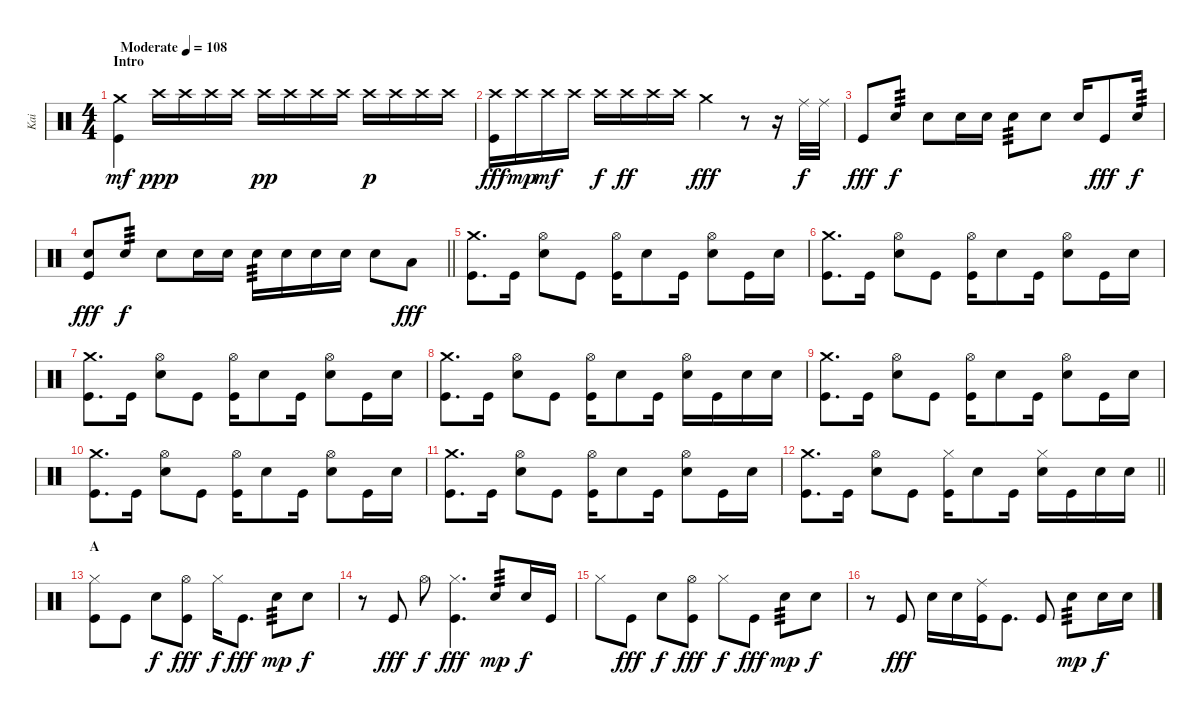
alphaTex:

\track ("Kai" "Kai") {instrument percussion}
\staff {score}
\articulation defaults
\ts (4 4)
\section ("" "Intro")
\tempo (108 "Moderate")
\clef neutral
\ks c
("Kick (hit)" "Crash medium (hit)").4{dy mf} "Crash high (hit)".16{dy ppp} "Crash high (hit)".16 "Crash high (hit)".16 "Crash high (hit)".16 "Crash high (hit)".16{dy pp} "Crash high (hit)".16 "Crash high (hit)".16 "Crash high (hit)".16 "Crash high (hit)".16{dy p} "Crash high (hit)".16 "Crash high (hit)".16 "Crash high (hit)".16 |
("Crash high (hit)" "Kick (hit)").16{dy fff} "Crash high (hit)".16{dy mp} "Crash high (hit)".16{dy mf} "Crash high (hit)".16 "Crash high (hit)".16{dy f} "Crash high (hit)".16{dy ff} "Crash high (hit)".16 "Crash high (hit)".16 "Crash medium (hit)".4{dy fff} r.8 r.16 "Ride (middle)".32{dy f} "Ride (middle)".32 |
"Kick (hit)".8{dy fff} "Snare (hit) 2".8{tp 3 dy f} "Snare (hit) 2".8 "Snare (hit) 2".16 "Snare (hit) 2".16 "Snare (hit) 2".8{tp 3} "Snare (hit) 2".8 "Snare (hit) 2".16 "Kick (hit)".8{dy fff} "Snare (hit) 2".16{tp 3 dy f} |
\barLineRight lightlight
("Kick (hit)" "Snare (hit) 2").8{dy fff} "Snare (hit) 2".8{tp 3 dy f} "Snare (hit) 2".8 "Snare (hit) 2".16 "Snare (hit) 2".16 "Snare (hit) 2".16{tp 3} "Snare (hit) 2".16 "Snare (hit) 2".16 "Snare (hit) 2".16 "Snare (hit) 2".8 "Low Tom (hit)".8{dy fff} |
("Crash medium (hit)" "Kick (hit)").8{d} "Kick (hit)".16 ("Snare (hit) 2" "Hi-Hat (open)").8 "Kick (hit)".8 ("Kick (hit)" "Hi-Hat (open)").16 "Snare (hit) 2".8 "Kick (hit)".16 ("Snare (hit) 2" "Hi-Hat (open)").8 "Kick (hit)".16 "Snare (hit) 2".16 |
("Crash medium (hit)" "Kick (hit)").8{d} "Kick (hit)".16 ("Snare (hit) 2" "Hi-Hat (open)").8 "Kick (hit)".8 ("Kick (hit)" "Hi-Hat (open)").16 "Snare (hit) 2".8 "Kick (hit)".16 ("Snare (hit) 2" "Hi-Hat (open)").8 "Kick (hit)".16 "Snare (hit) 2".16 |
("Crash medium (hit)" "Kick (hit)").8{d} "Kick (hit)".16 ("Snare (hit) 2" "Hi-Hat (open)").8 "Kick (hit)".8 ("Kick (hit)" "Hi-Hat (open)").16 "Snare (hit) 2".8 "Kick (hit)".16 ("Snare (hit) 2" "Hi-Hat (open)").8 "Kick (hit)".16 "Snare (hit) 2".16 |
("Crash medium (hit)" "Kick (hit)").8{d} "Kick (hit)".16 ("Snare (hit) 2" "Hi-Hat (open)").8 "Kick (hit)".8 ("Kick (hit)" "Hi-Hat (open)").16 "Snare (hit) 2".8 "Kick (hit)".16 ("Snare (hit) 2" "Hi-Hat (open)").16 "Kick (hit)".16 "Snare (hit) 2".16 "Snare (hit) 2".16 |
("Crash medium (hit)" "Kick (hit)").8{d} "Kick (hit)".16 ("Snare (hit) 2" "Hi-Hat (open)").8 "Kick (hit)".8 ("Kick (hit)" "Hi-Hat (open)").16 "Snare (hit) 2".8 "Kick (hit)".16 ("Snare (hit) 2" "Hi-Hat (open)").8 "Kick (hit)".16 "Snare (hit) 2".16 |
("Crash medium (hit)" "Kick (hit)").8{d} "Kick (hit)".16 ("Snare (hit) 2" "Hi-Hat (open)").8 "Kick (hit)".8 ("Kick (hit)" "Hi-Hat (open)").16 "Snare (hit) 2".8 "Kick (hit)".16 ("Snare (hit) 2" "Hi-Hat (open)").8 "Kick (hit)".16 "Snare (hit) 2".16 |
("Crash medium (hit)" "Kick (hit)").8{d} "Kick (hit)".16 ("Snare (hit) 2" "Hi-Hat (open)").8 "Kick (hit)".8 ("Kick (hit)" "Hi-Hat (open)").16 "Snare (hit) 2".8 "Kick (hit)".16 ("Snare (hit) 2" "Hi-Hat (open)").8 "Kick (hit)".16 "Snare (hit) 2".16 |
\barLineRight lightlight
("Crash medium (hit)" "Kick (hit)").8{d} "Kick (hit)".16 ("Snare (hit) 2" "Hi-Hat (open)").8 "Kick (hit)".8 ("Kick (hit)" "Hi-Hat (closed)").16 "Snare (hit) 2".8 "Kick (hit)".16 ("Snare (hit) 2" "Hi-Hat (closed)").16 "Kick (hit)".16 "Snare (hit) 2".16 "Snare (hit) 2".16 |
\section ("" "A")
("Kick (hit)" "Hi-Hat (closed)").8 "Kick (hit)".8 "Snare (hit) 2".8{dy f} ("Hi-Hat (open)" "Kick (hit)").8{dy fff} "Hi-Hat (closed)".16{dy f} "Kick (hit)".8{d dy fff} "Snare (hit) 2".8{tp 3 dy mp} "Snare (hit) 2".8{dy f} |
r.8 "Kick (hit)".8{dy fff} "Hi-Hat (open)".8{dy f} ("Hi-Hat (closed)" "Kick (hit)").4{d dy fff} "Snare (hit) 2".8{tp 3 dy mp} "Snare (hit) 2".16{dy f} "Kick (hit)".16 |
"Hi-Hat (closed)".8 "Kick (hit)".8{dy fff} "Snare (hit) 2".8{dy f} ("Hi-Hat (open)" "Kick (hit)").8{dy fff} "Hi-Hat (closed)".8{dy f} "Kick (hit)".8{dy fff} "Snare (hit) 2".8{tp 3 dy mp} "Snare (hit) 2".8{dy f} |
r.8 "Kick (hit)".8{dy fff} "Snare (hit) 2".16 "Snare (hit) 2".16 ("Kick (hit)" "Ride (middle)").16 "Kick (hit)".8{d} "Kick (hit)".8 "Snare (hit) 2".8{tp 3 dy mp} "Snare (hit) 2".16{dy f} "Snare (hit) 2".16
